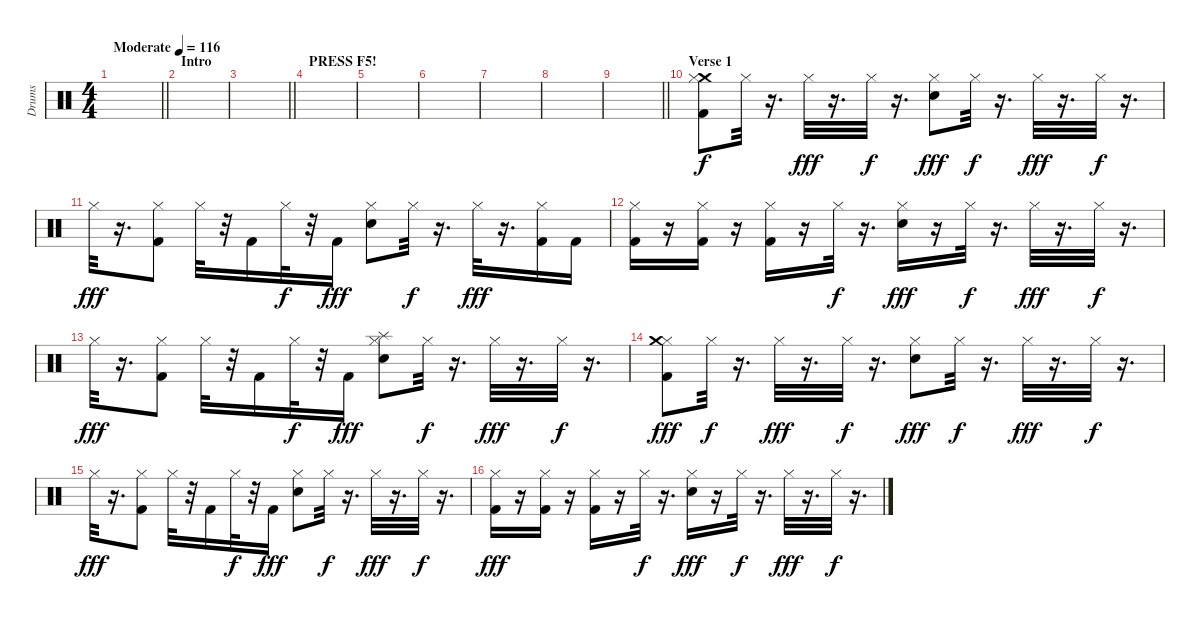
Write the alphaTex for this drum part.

\track ("Drums" "Drums") {instrument percussion}
\staff {score}
\articulation defaults
\ts (4 4)
\tempo (116 "Moderate")
\clef neutral
\barLineRight lightlight
\ks c
|
\section ("" "Intro")
|
\barLineRight lightlight
|
\section ("" "PRESS F5!")
|
|
|
|
|
\barLineRight lightlight
|
\section ("" "Verse 1")
("Kick (hit) 2" "Crash medium (hit)" "Hi-Hat (closed)").8 "Hi-Hat (closed)".32{dy f} r.16{d} "Hi-Hat (closed)".32{dy fff} r.16{d} "Hi-Hat (closed)".32{dy f} r.16{d} ("Hi-Hat (closed)" "Snare (hit) 2").8{dy fff} "Hi-Hat (closed)".32{dy f} r.16{d} "Hi-Hat (closed)".32{dy fff} r.16{d} "Hi-Hat (closed)".32{dy f} r.16{d} |
"Hi-Hat (closed)".32{dy fff} r.16{d} ("Hi-Hat (closed)" "Kick (hit) 2").8 "Hi-Hat (closed)".32 r.32 "Kick (hit) 2".16 "Hi-Hat (closed)".32{dy f} r.32 "Kick (hit) 2".16{dy fff} ("Hi-Hat (closed)" "Snare (hit) 2").8 "Hi-Hat (closed)".32{dy f} r.16{d} "Hi-Hat (closed)".32{dy fff} r.16{d} ("Hi-Hat (closed)" "Kick (hit) 2").16 "Kick (hit) 2".16 |
("Hi-Hat (closed)" "Kick (hit) 2").16 r.16 ("Hi-Hat (closed)" "Kick (hit) 2").16 r.16 ("Hi-Hat (closed)" "Kick (hit) 2").16 r.16 "Hi-Hat (closed)".32{dy f} r.16{d} ("Hi-Hat (closed)" "Snare (hit) 2").16{dy fff} r.16 "Hi-Hat (closed)".32{dy f} r.16{d} "Hi-Hat (closed)".32{dy fff} r.16{d} "Hi-Hat (closed)".32{dy f} r.16{d} |
"Hi-Hat (closed)".32{dy fff} r.16{d} ("Hi-Hat (closed)" "Kick (hit) 2").8 "Hi-Hat (closed)".32 r.32 "Kick (hit) 2".16 "Hi-Hat (closed)".32{dy f} r.32 "Kick (hit) 2".16{dy fff} ("Snare (hit) 2" "Hi-Hat (closed)" "Splash (hit)").8 "Hi-Hat (closed)".32{dy f} r.16{d} "Hi-Hat (closed)".32{dy fff} r.16{d} "Hi-Hat (closed)".32{dy f} r.16{d} |
("Hi-Hat (closed)" "Crash medium (hit)" "Kick (hit) 2").8{dy fff} "Hi-Hat (closed)".32{dy f} r.16{d} "Hi-Hat (closed)".32{dy fff} r.16{d} "Hi-Hat (closed)".32{dy f} r.16{d} ("Hi-Hat (closed)" "Snare (hit) 2").8{dy fff} "Hi-Hat (closed)".32{dy f} r.16{d} "Hi-Hat (closed)".32{dy fff} r.16{d} "Hi-Hat (closed)".32{dy f} r.16{d} |
"Hi-Hat (closed)".32{dy fff} r.16{d} ("Hi-Hat (closed)" "Kick (hit) 2").8 "Hi-Hat (closed)".32 r.32 "Kick (hit) 2".16 "Hi-Hat (closed)".32{dy f} r.32 "Kick (hit) 2".16{dy fff} ("Hi-Hat (closed)" "Snare (hit) 2").8 "Hi-Hat (closed)".32{dy f} r.16{d} "Hi-Hat (closed)".32{dy fff} r.16{d} "Hi-Hat (closed)".32{dy f} r.16{d} |
("Hi-Hat (closed)" "Kick (hit) 2").16{dy fff} r.16 ("Hi-Hat (closed)" "Kick (hit) 2").16 r.16 ("Hi-Hat (closed)" "Kick (hit) 2").16 r.16 "Hi-Hat (closed)".32{dy f} r.16{d} ("Hi-Hat (closed)" "Snare (hit) 2").16{dy fff} r.16 "Hi-Hat (closed)".32{dy f} r.16{d} "Hi-Hat (closed)".32{dy fff} r.16{d} "Hi-Hat (closed)".32{dy f} r.16{d}
